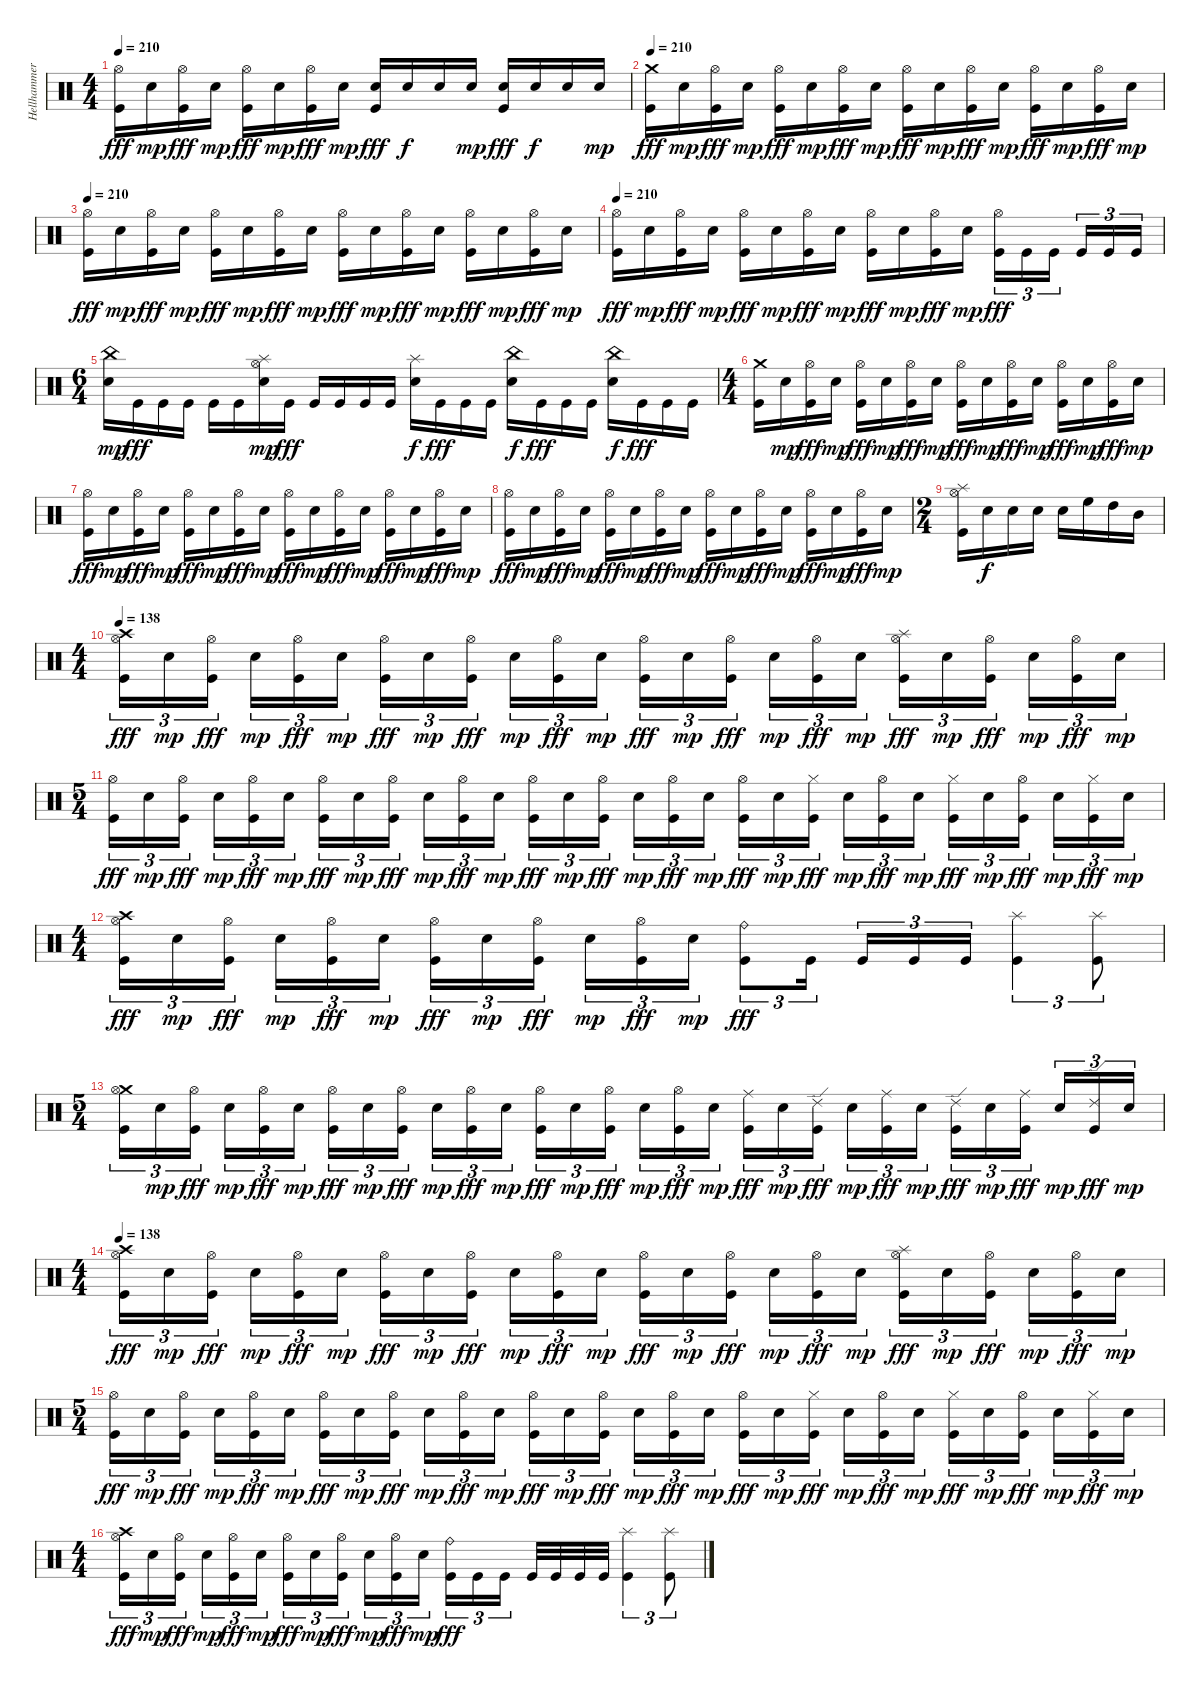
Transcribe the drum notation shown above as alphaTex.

\track ("Hellhammer" "Hellhammer") {instrument percussion}
\staff {score}
\articulation defaults
\ts (4 4)
\tempo 210
\clef neutral
\ks c
("Hi-Hat (open)" "Kick (hit)").16{dy fff} "Electric Snare (hit)".16{dy mp} ("Hi-Hat (open)" "Kick (hit)").16{dy fff} "Electric Snare (hit)".16{dy mp} ("Hi-Hat (open)" "Kick (hit)").16{dy fff} "Electric Snare (hit)".16{dy mp} ("Hi-Hat (open)" "Kick (hit)").16{dy fff} "Electric Snare (hit)".16{dy mp} ("Kick (hit)" "Electric Snare (hit)").16{dy fff} "Electric Snare (hit)".16{dy f} "Electric Snare (hit)".16 "Electric Snare (hit)".16{dy mp} ("Kick (hit)" "Electric Snare (hit)").16{dy fff} "Electric Snare (hit)".16{dy f} "Electric Snare (hit)".16 "Electric Snare (hit)".16{dy mp} |
\tempo 210
("Crash medium (hit)" "Kick (hit)").16{dy fff} "Electric Snare (hit)".16{dy mp} ("Hi-Hat (open)" "Kick (hit)").16{dy fff} "Electric Snare (hit)".16{dy mp} ("Hi-Hat (open)" "Kick (hit)").16{dy fff} "Electric Snare (hit)".16{dy mp} ("Hi-Hat (open)" "Kick (hit)").16{dy fff} "Electric Snare (hit)".16{dy mp} ("Hi-Hat (open)" "Kick (hit)").16{dy fff} "Electric Snare (hit)".16{dy mp} ("Hi-Hat (open)" "Kick (hit)").16{dy fff} "Electric Snare (hit)".16{dy mp} ("Hi-Hat (open)" "Kick (hit)").16{dy fff} "Electric Snare (hit)".16{dy mp} ("Hi-Hat (open)" "Kick (hit)").16{dy fff} "Electric Snare (hit)".16{dy mp} |
\tempo 210
("Hi-Hat (open)" "Kick (hit)").16{dy fff} "Electric Snare (hit)".16{dy mp} ("Hi-Hat (open)" "Kick (hit)").16{dy fff} "Electric Snare (hit)".16{dy mp} ("Hi-Hat (open)" "Kick (hit)").16{dy fff} "Electric Snare (hit)".16{dy mp} ("Hi-Hat (open)" "Kick (hit)").16{dy fff} "Electric Snare (hit)".16{dy mp} ("Hi-Hat (open)" "Kick (hit)").16{dy fff} "Electric Snare (hit)".16{dy mp} ("Hi-Hat (open)" "Kick (hit)").16{dy fff} "Electric Snare (hit)".16{dy mp} ("Hi-Hat (open)" "Kick (hit)").16{dy fff} "Electric Snare (hit)".16{dy mp} ("Hi-Hat (open)" "Kick (hit)").16{dy fff} "Electric Snare (hit)".16{dy mp} |
\tempo 210
("Hi-Hat (open)" "Kick (hit)").16{dy fff} "Electric Snare (hit)".16{dy mp} ("Hi-Hat (open)" "Kick (hit)").16{dy fff} "Electric Snare (hit)".16{dy mp} ("Hi-Hat (open)" "Kick (hit)").16{dy fff} "Electric Snare (hit)".16{dy mp} ("Hi-Hat (open)" "Kick (hit)").16{dy fff} "Electric Snare (hit)".16{dy mp} ("Hi-Hat (open)" "Kick (hit)").16{dy fff} "Electric Snare (hit)".16{dy mp} ("Hi-Hat (open)" "Kick (hit)").16{dy fff} "Electric Snare (hit)".16{dy mp} ("Hi-Hat (open)" "Kick (hit)").16{tu (3 2) dy fff} "Kick (hit)".16{tu (3 2)} "Kick (hit)".16{tu (3 2)} "Kick (hit)".16{tu (3 2)} "Kick (hit)".16{tu (3 2)} "Kick (hit)".16{tu (3 2)} |
\ts (6 4)
("China (hit)" "Electric Snare (hit)").16{dy mp} "Kick (hit)".16{dy fff} "Kick (hit)".16 "Kick (hit)".16 "Kick (hit)".16 "Kick (hit)".16 ("Hi-Hat (open)" "Splash (hit)" "Electric Snare (hit)").16{dy mp} "Kick (hit)".16{dy fff} "Kick (hit)".16 "Kick (hit)".16 "Kick (hit)".16 "Kick (hit)".16 ("Splash (hit)" "Electric Snare (hit)").16{dy f} "Kick (hit)".16{dy fff} "Kick (hit)".16 "Kick (hit)".16 ("China (hit)" "Electric Snare (hit)").16{dy f} "Kick (hit)".16{dy fff} "Kick (hit)".16 "Kick (hit)".16 ("China (hit)" "Electric Snare (hit)").16{dy f} "Kick (hit)".16{dy fff} "Kick (hit)".16 "Kick (hit)".16 |
\ts (4 4)
("Crash medium (hit)" "Kick (hit)").16 "Electric Snare (hit)".16{dy mp} ("Hi-Hat (open)" "Kick (hit)").16{dy fff} "Electric Snare (hit)".16{dy mp} ("Hi-Hat (open)" "Kick (hit)").16{dy fff} "Electric Snare (hit)".16{dy mp} ("Hi-Hat (open)" "Kick (hit)").16{dy fff} "Electric Snare (hit)".16{dy mp} ("Hi-Hat (open)" "Kick (hit)").16{dy fff} "Electric Snare (hit)".16{dy mp} ("Hi-Hat (open)" "Kick (hit)").16{dy fff} "Electric Snare (hit)".16{dy mp} ("Hi-Hat (open)" "Kick (hit)").16{dy fff} "Electric Snare (hit)".16{dy mp} ("Hi-Hat (open)" "Kick (hit)").16{dy fff} "Electric Snare (hit)".16{dy mp} |
("Hi-Hat (open)" "Kick (hit)").16{dy fff} "Electric Snare (hit)".16{dy mp} ("Hi-Hat (open)" "Kick (hit)").16{dy fff} "Electric Snare (hit)".16{dy mp} ("Hi-Hat (open)" "Kick (hit)").16{dy fff} "Electric Snare (hit)".16{dy mp} ("Hi-Hat (open)" "Kick (hit)").16{dy fff} "Electric Snare (hit)".16{dy mp} ("Hi-Hat (open)" "Kick (hit)").16{dy fff} "Electric Snare (hit)".16{dy mp} ("Hi-Hat (open)" "Kick (hit)").16{dy fff} "Electric Snare (hit)".16{dy mp} ("Hi-Hat (open)" "Kick (hit)").16{dy fff} "Electric Snare (hit)".16{dy mp} ("Hi-Hat (open)" "Kick (hit)").16{dy fff} "Electric Snare (hit)".16{dy mp} |
("Hi-Hat (open)" "Kick (hit)").16{dy fff} "Electric Snare (hit)".16{dy mp} ("Hi-Hat (open)" "Kick (hit)").16{dy fff} "Electric Snare (hit)".16{dy mp} ("Hi-Hat (open)" "Kick (hit)").16{dy fff} "Electric Snare (hit)".16{dy mp} ("Hi-Hat (open)" "Kick (hit)").16{dy fff} "Electric Snare (hit)".16{dy mp} ("Hi-Hat (open)" "Kick (hit)").16{dy fff} "Electric Snare (hit)".16{dy mp} ("Hi-Hat (open)" "Kick (hit)").16{dy fff} "Electric Snare (hit)".16{dy mp} ("Hi-Hat (open)" "Kick (hit)").16{dy fff} "Electric Snare (hit)".16{dy mp} ("Hi-Hat (open)" "Kick (hit)").16{dy fff} "Electric Snare (hit)".16{dy mp} |
\ts (2 4)
("Splash (hit)" "Hi-Hat (open)" "Kick (hit)").16 "Electric Snare (hit)".16{dy f} "Electric Snare (hit)".16 "Electric Snare (hit)".16 "Electric Snare (hit)".16 "High Floor Tom (hit)".16 "High Tom (hit)".16 "Mid Tom (hit)".16 |
\ts (4 4)
\tempo 138
("Crash high (hit)" "Hi-Hat (open)" "Kick (hit)").16{tu (3 2) dy fff} "Electric Snare (hit)".16{tu (3 2) dy mp} ("Hi-Hat (open)" "Kick (hit)").16{tu (3 2) dy fff} "Electric Snare (hit)".16{tu (3 2) dy mp} ("Hi-Hat (open)" "Kick (hit)").16{tu (3 2) dy fff} "Electric Snare (hit)".16{tu (3 2) dy mp} ("Hi-Hat (open)" "Kick (hit)").16{tu (3 2) dy fff} "Electric Snare (hit)".16{tu (3 2) dy mp} ("Hi-Hat (open)" "Kick (hit)").16{tu (3 2) dy fff} "Electric Snare (hit)".16{tu (3 2) dy mp} ("Hi-Hat (open)" "Kick (hit)").16{tu (3 2) dy fff} "Electric Snare (hit)".16{tu (3 2) dy mp} ("Hi-Hat (open)" "Kick (hit)").16{tu (3 2) dy fff} "Electric Snare (hit)".16{tu (3 2) dy mp} ("Hi-Hat (open)" "Kick (hit)").16{tu (3 2) dy fff} "Electric Snare (hit)".16{tu (3 2) dy mp} ("Hi-Hat (open)" "Kick (hit)").16{tu (3 2) dy fff} "Electric Snare (hit)".16{tu (3 2) dy mp} ("Splash (hit)" "Hi-Hat (open)" "Kick (hit)").16{tu (3 2) dy fff} "Electric Snare (hit)".16{tu (3 2) dy mp} ("Hi-Hat (open)" "Kick (hit)").16{tu (3 2) dy fff} "Electric Snare (hit)".16{tu (3 2) dy mp} ("Hi-Hat (open)" "Kick (hit)").16{tu (3 2) dy fff} "Electric Snare (hit)".16{tu (3 2) dy mp} |
\ts (5 4)
("Hi-Hat (open)" "Kick (hit)").16{tu (3 2) dy fff} "Electric Snare (hit)".16{tu (3 2) dy mp} ("Hi-Hat (open)" "Kick (hit)").16{tu (3 2) dy fff} "Electric Snare (hit)".16{tu (3 2) dy mp} ("Hi-Hat (open)" "Kick (hit)").16{tu (3 2) dy fff} "Electric Snare (hit)".16{tu (3 2) dy mp} ("Hi-Hat (open)" "Kick (hit)").16{tu (3 2) dy fff} "Electric Snare (hit)".16{tu (3 2) dy mp} ("Hi-Hat (open)" "Kick (hit)").16{tu (3 2) dy fff} "Electric Snare (hit)".16{tu (3 2) dy mp} ("Hi-Hat (open)" "Kick (hit)").16{tu (3 2) dy fff} "Electric Snare (hit)".16{tu (3 2) dy mp} ("Hi-Hat (open)" "Kick (hit)").16{tu (3 2) dy fff} "Electric Snare (hit)".16{tu (3 2) dy mp} ("Hi-Hat (open)" "Kick (hit)").16{tu (3 2) dy fff} "Electric Snare (hit)".16{tu (3 2) dy mp} ("Hi-Hat (open)" "Kick (hit)").16{tu (3 2) dy fff} "Electric Snare (hit)".16{tu (3 2) dy mp} ("Hi-Hat (open)" "Kick (hit)").16{tu (3 2) dy fff} "Electric Snare (hit)".16{tu (3 2) dy mp} ("Hi-Hat (closed)" "Kick (hit)").16{tu (3 2) dy fff} "Electric Snare (hit)".16{tu (3 2) dy mp} ("Hi-Hat (open)" "Kick (hit)").16{tu (3 2) dy fff} "Electric Snare (hit)".16{tu (3 2) dy mp} ("Hi-Hat (closed)" "Kick (hit)").16{tu (3 2) dy fff} "Electric Snare (hit)".16{tu (3 2) dy mp} ("Hi-Hat (open)" "Kick (hit)").16{tu (3 2) dy fff} "Electric Snare (hit)".16{tu (3 2) dy mp} ("Hi-Hat (closed)" "Kick (hit)").16{tu (3 2) dy fff} "Electric Snare (hit)".16{tu (3 2) dy mp} |
\ts (4 4)
("Crash high (hit)" "Hi-Hat (open)" "Kick (hit)").16{tu (3 2) dy fff} "Electric Snare (hit)".16{tu (3 2) dy mp} ("Hi-Hat (open)" "Kick (hit)").16{tu (3 2) dy fff} "Electric Snare (hit)".16{tu (3 2) dy mp} ("Hi-Hat (open)" "Kick (hit)").16{tu (3 2) dy fff} "Electric Snare (hit)".16{tu (3 2) dy mp} ("Hi-Hat (open)" "Kick (hit)").16{tu (3 2) dy fff} "Electric Snare (hit)".16{tu (3 2) dy mp} ("Hi-Hat (open)" "Kick (hit)").16{tu (3 2) dy fff} "Electric Snare (hit)".16{tu (3 2) dy mp} ("Hi-Hat (open)" "Kick (hit)").16{tu (3 2) dy fff} "Electric Snare (hit)".16{tu (3 2) dy mp} ("Ride (bell)" "Kick (hit)").8{tu (3 2) dy fff} "Kick (hit)".16{tu (3 2)} "Kick (hit)".16{tu (3 2)} "Kick (hit)".16{tu (3 2)} "Kick (hit)".16{tu (3 2)} ("Splash (hit)" "Kick (hit)").4{tu (3 2)} ("Splash (hit)" "Kick (hit)").8{tu (3 2)} |
\ts (5 4)
("Crash medium (hit)" "Hi-Hat (open)" "Kick (hit)").16{tu (3 2)} "Electric Snare (hit)".16{tu (3 2) dy mp} ("Hi-Hat (open)" "Kick (hit)").16{tu (3 2) dy fff} "Electric Snare (hit)".16{tu (3 2) dy mp} ("Hi-Hat (open)" "Kick (hit)").16{tu (3 2) dy fff} "Electric Snare (hit)".16{tu (3 2) dy mp} ("Hi-Hat (open)" "Kick (hit)").16{tu (3 2) dy fff} "Electric Snare (hit)".16{tu (3 2) dy mp} ("Hi-Hat (open)" "Kick (hit)").16{tu (3 2) dy fff} "Electric Snare (hit)".16{tu (3 2) dy mp} ("Hi-Hat (open)" "Kick (hit)").16{tu (3 2) dy fff} "Electric Snare (hit)".16{tu (3 2) dy mp} ("Hi-Hat (open)" "Kick (hit)").16{tu (3 2) dy fff} "Electric Snare (hit)".16{tu (3 2) dy mp} ("Hi-Hat (open)" "Kick (hit)").16{tu (3 2) dy fff} "Electric Snare (hit)".16{tu (3 2) dy mp} ("Hi-Hat (open)" "Kick (hit)").16{tu (3 2) dy fff} "Electric Snare (hit)".16{tu (3 2) dy mp} ("Ride (middle)" "Kick (hit)").16{tu (3 2) dy fff} "Electric Snare (hit)".16{tu (3 2) dy mp} ("Ride (edge) 2" "Kick (hit)").16{tu (3 2) dy fff} "Electric Snare (hit)".16{tu (3 2) dy mp} ("Ride (middle)" "Kick (hit)").16{tu (3 2) dy fff} "Electric Snare (hit)".16{tu (3 2) dy mp} ("Ride (edge) 2" "Kick (hit)").16{tu (3 2) dy fff} "Electric Snare (hit)".16{tu (3 2) dy mp} ("Ride (middle)" "Kick (hit)").16{tu (3 2) dy fff} "Electric Snare (hit)".16{tu (3 2) dy mp} ("Ride (edge) 2" "Kick (hit)").16{tu (3 2) dy fff} "Electric Snare (hit)".16{tu (3 2) dy mp} |
\ts (4 4)
\tempo 138
("Crash high (hit)" "Hi-Hat (open)" "Kick (hit)").16{tu (3 2) dy fff} "Electric Snare (hit)".16{tu (3 2) dy mp} ("Hi-Hat (open)" "Kick (hit)").16{tu (3 2) dy fff} "Electric Snare (hit)".16{tu (3 2) dy mp} ("Hi-Hat (open)" "Kick (hit)").16{tu (3 2) dy fff} "Electric Snare (hit)".16{tu (3 2) dy mp} ("Hi-Hat (open)" "Kick (hit)").16{tu (3 2) dy fff} "Electric Snare (hit)".16{tu (3 2) dy mp} ("Hi-Hat (open)" "Kick (hit)").16{tu (3 2) dy fff} "Electric Snare (hit)".16{tu (3 2) dy mp} ("Hi-Hat (open)" "Kick (hit)").16{tu (3 2) dy fff} "Electric Snare (hit)".16{tu (3 2) dy mp} ("Hi-Hat (open)" "Kick (hit)").16{tu (3 2) dy fff} "Electric Snare (hit)".16{tu (3 2) dy mp} ("Hi-Hat (open)" "Kick (hit)").16{tu (3 2) dy fff} "Electric Snare (hit)".16{tu (3 2) dy mp} ("Hi-Hat (open)" "Kick (hit)").16{tu (3 2) dy fff} "Electric Snare (hit)".16{tu (3 2) dy mp} ("Splash (hit)" "Hi-Hat (open)" "Kick (hit)").16{tu (3 2) dy fff} "Electric Snare (hit)".16{tu (3 2) dy mp} ("Hi-Hat (open)" "Kick (hit)").16{tu (3 2) dy fff} "Electric Snare (hit)".16{tu (3 2) dy mp} ("Hi-Hat (open)" "Kick (hit)").16{tu (3 2) dy fff} "Electric Snare (hit)".16{tu (3 2) dy mp} |
\ts (5 4)
("Hi-Hat (open)" "Kick (hit)").16{tu (3 2) dy fff} "Electric Snare (hit)".16{tu (3 2) dy mp} ("Hi-Hat (open)" "Kick (hit)").16{tu (3 2) dy fff} "Electric Snare (hit)".16{tu (3 2) dy mp} ("Hi-Hat (open)" "Kick (hit)").16{tu (3 2) dy fff} "Electric Snare (hit)".16{tu (3 2) dy mp} ("Hi-Hat (open)" "Kick (hit)").16{tu (3 2) dy fff} "Electric Snare (hit)".16{tu (3 2) dy mp} ("Hi-Hat (open)" "Kick (hit)").16{tu (3 2) dy fff} "Electric Snare (hit)".16{tu (3 2) dy mp} ("Hi-Hat (open)" "Kick (hit)").16{tu (3 2) dy fff} "Electric Snare (hit)".16{tu (3 2) dy mp} ("Hi-Hat (open)" "Kick (hit)").16{tu (3 2) dy fff} "Electric Snare (hit)".16{tu (3 2) dy mp} ("Hi-Hat (open)" "Kick (hit)").16{tu (3 2) dy fff} "Electric Snare (hit)".16{tu (3 2) dy mp} ("Hi-Hat (open)" "Kick (hit)").16{tu (3 2) dy fff} "Electric Snare (hit)".16{tu (3 2) dy mp} ("Hi-Hat (open)" "Kick (hit)").16{tu (3 2) dy fff} "Electric Snare (hit)".16{tu (3 2) dy mp} ("Hi-Hat (closed)" "Kick (hit)").16{tu (3 2) dy fff} "Electric Snare (hit)".16{tu (3 2) dy mp} ("Hi-Hat (open)" "Kick (hit)").16{tu (3 2) dy fff} "Electric Snare (hit)".16{tu (3 2) dy mp} ("Hi-Hat (closed)" "Kick (hit)").16{tu (3 2) dy fff} "Electric Snare (hit)".16{tu (3 2) dy mp} ("Hi-Hat (open)" "Kick (hit)").16{tu (3 2) dy fff} "Electric Snare (hit)".16{tu (3 2) dy mp} ("Hi-Hat (closed)" "Kick (hit)").16{tu (3 2) dy fff} "Electric Snare (hit)".16{tu (3 2) dy mp} |
\ts (4 4)
("Crash high (hit)" "Hi-Hat (open)" "Kick (hit)").16{tu (3 2) dy fff} "Electric Snare (hit)".16{tu (3 2) dy mp} ("Hi-Hat (open)" "Kick (hit)").16{tu (3 2) dy fff} "Electric Snare (hit)".16{tu (3 2) dy mp} ("Hi-Hat (open)" "Kick (hit)").16{tu (3 2) dy fff} "Electric Snare (hit)".16{tu (3 2) dy mp} ("Hi-Hat (open)" "Kick (hit)").16{tu (3 2) dy fff} "Electric Snare (hit)".16{tu (3 2) dy mp} ("Hi-Hat (open)" "Kick (hit)").16{tu (3 2) dy fff} "Electric Snare (hit)".16{tu (3 2) dy mp} ("Hi-Hat (open)" "Kick (hit)").16{tu (3 2) dy fff} "Electric Snare (hit)".16{tu (3 2) dy mp} ("Ride (bell)" "Kick (hit)").16{tu (3 2) dy fff} "Kick (hit)".16{tu (3 2)} "Kick (hit)".16{tu (3 2)} "Kick (hit)".32 "Kick (hit)".32 "Kick (hit)".32 "Kick (hit)".32 ("Splash (hit)" "Kick (hit)").4{tu (3 2)} ("Splash (hit)" "Kick (hit)").8{tu (3 2)}
